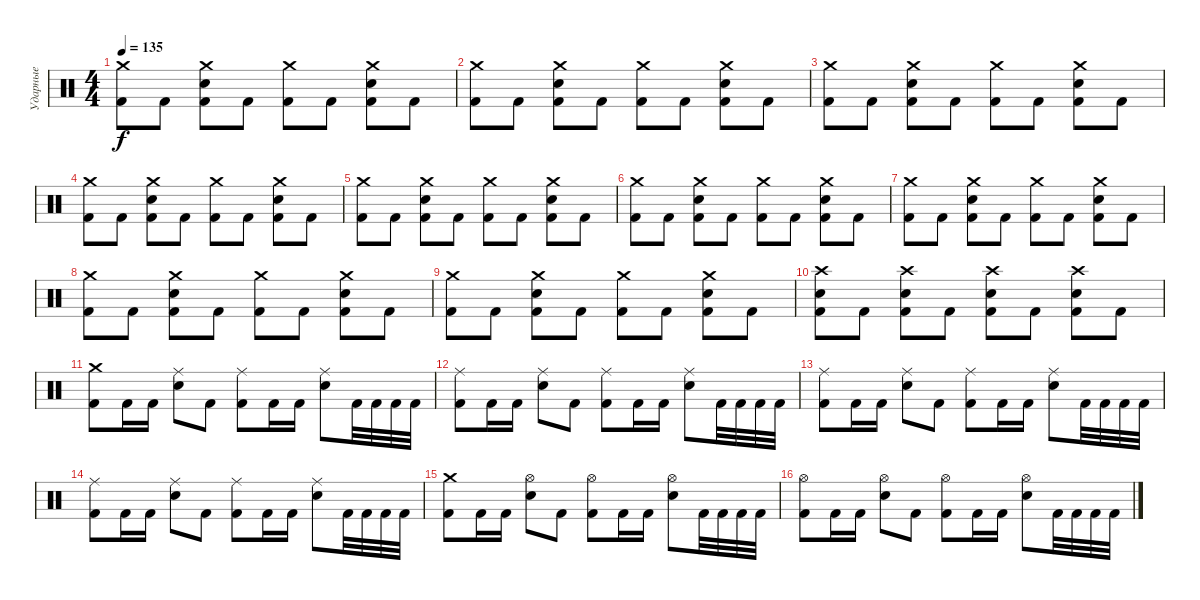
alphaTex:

\track ("Ударные" "Ударные") {instrument percussion}
\staff {score}
\articulation defaults
\ts (4 4)
\tempo 135
\clef neutral
\ks c
("Crash medium (hit)" "Kick (hit) 2").8{dy f} "Kick (hit) 2".8 ("Crash medium (hit)" "Electric Snare (hit)" "Kick (hit) 2").8 "Kick (hit) 2".8 ("Crash medium (hit)" "Kick (hit) 2").8 "Kick (hit) 2".8 ("Crash medium (hit)" "Electric Snare (hit)" "Kick (hit) 2").8 "Kick (hit) 2".8 |
("Crash medium (hit)" "Kick (hit) 2").8 "Kick (hit) 2".8 ("Crash medium (hit)" "Electric Snare (hit)" "Kick (hit) 2").8 "Kick (hit) 2".8 ("Crash medium (hit)" "Kick (hit) 2").8 "Kick (hit) 2".8 ("Crash medium (hit)" "Electric Snare (hit)" "Kick (hit) 2").8 "Kick (hit) 2".8 |
("Crash medium (hit)" "Kick (hit) 2").8 "Kick (hit) 2".8 ("Crash medium (hit)" "Electric Snare (hit)" "Kick (hit) 2").8 "Kick (hit) 2".8 ("Crash medium (hit)" "Kick (hit) 2").8 "Kick (hit) 2".8 ("Crash medium (hit)" "Electric Snare (hit)" "Kick (hit) 2").8 "Kick (hit) 2".8 |
("Crash medium (hit)" "Kick (hit) 2").8 "Kick (hit) 2".8 ("Crash medium (hit)" "Electric Snare (hit)" "Kick (hit) 2").8 "Kick (hit) 2".8 ("Crash medium (hit)" "Kick (hit) 2").8 "Kick (hit) 2".8 ("Crash medium (hit)" "Electric Snare (hit)" "Kick (hit) 2").8 "Kick (hit) 2".8 |
("Crash medium (hit)" "Kick (hit) 2").8 "Kick (hit) 2".8 ("Crash medium (hit)" "Electric Snare (hit)" "Kick (hit) 2").8 "Kick (hit) 2".8 ("Crash medium (hit)" "Kick (hit) 2").8 "Kick (hit) 2".8 ("Crash medium (hit)" "Electric Snare (hit)" "Kick (hit) 2").8 "Kick (hit) 2".8 |
("Crash medium (hit)" "Kick (hit) 2").8 "Kick (hit) 2".8 ("Crash medium (hit)" "Electric Snare (hit)" "Kick (hit) 2").8 "Kick (hit) 2".8 ("Crash medium (hit)" "Kick (hit) 2").8 "Kick (hit) 2".8 ("Crash medium (hit)" "Electric Snare (hit)" "Kick (hit) 2").8 "Kick (hit) 2".8 |
("Crash medium (hit)" "Kick (hit) 2").8 "Kick (hit) 2".8 ("Crash medium (hit)" "Electric Snare (hit)" "Kick (hit) 2").8 "Kick (hit) 2".8 ("Crash medium (hit)" "Kick (hit) 2").8 "Kick (hit) 2".8 ("Crash medium (hit)" "Electric Snare (hit)" "Kick (hit) 2").8 "Kick (hit) 2".8 |
("Crash medium (hit)" "Kick (hit) 2").8 "Kick (hit) 2".8 ("Crash medium (hit)" "Electric Snare (hit)" "Kick (hit) 2").8 "Kick (hit) 2".8 ("Crash medium (hit)" "Kick (hit) 2").8 "Kick (hit) 2".8 ("Crash medium (hit)" "Electric Snare (hit)" "Kick (hit) 2").8 "Kick (hit) 2".8 |
("Crash medium (hit)" "Kick (hit) 2").8 "Kick (hit) 2".8 ("Crash medium (hit)" "Electric Snare (hit)" "Kick (hit) 2").8 "Kick (hit) 2".8 ("Crash medium (hit)" "Kick (hit) 2").8 "Kick (hit) 2".8 ("Crash medium (hit)" "Electric Snare (hit)" "Kick (hit) 2").8 "Kick (hit) 2".8 |
("Crash high (hit)" "Electric Snare (hit)" "Kick (hit) 2").8 "Kick (hit) 2".8 ("Crash high (hit)" "Electric Snare (hit)" "Kick (hit) 2").8 "Kick (hit) 2".8 ("Crash high (hit)" "Electric Snare (hit)" "Kick (hit) 2").8 "Kick (hit) 2".8 ("Crash high (hit)" "Electric Snare (hit)" "Kick (hit) 2").8 "Kick (hit) 2".8 |
("Crash medium (hit)" "Kick (hit) 2").8 "Kick (hit) 2".16 "Kick (hit) 2".16 ("Ride (middle)" "Electric Snare (hit)").8 "Kick (hit) 2".8 ("Ride (middle)" "Kick (hit) 2").8 "Kick (hit) 2".16 "Kick (hit) 2".16 ("Ride (middle)" "Electric Snare (hit)").8 "Kick (hit) 2".32 "Kick (hit) 2".32 "Kick (hit) 2".32 "Kick (hit) 2".32 |
("Ride (middle)" "Kick (hit) 2").8 "Kick (hit) 2".16 "Kick (hit) 2".16 ("Ride (middle)" "Electric Snare (hit)").8 "Kick (hit) 2".8 ("Ride (middle)" "Kick (hit) 2").8 "Kick (hit) 2".16 "Kick (hit) 2".16 ("Ride (middle)" "Electric Snare (hit)").8 "Kick (hit) 2".32 "Kick (hit) 2".32 "Kick (hit) 2".32 "Kick (hit) 2".32 |
("Ride (middle)" "Kick (hit) 2").8 "Kick (hit) 2".16 "Kick (hit) 2".16 ("Ride (middle)" "Electric Snare (hit)").8 "Kick (hit) 2".8 ("Ride (middle)" "Kick (hit) 2").8 "Kick (hit) 2".16 "Kick (hit) 2".16 ("Ride (middle)" "Electric Snare (hit)").8 "Kick (hit) 2".32 "Kick (hit) 2".32 "Kick (hit) 2".32 "Kick (hit) 2".32 |
("Ride (middle)" "Kick (hit) 2").8 "Kick (hit) 2".16 "Kick (hit) 2".16 ("Ride (middle)" "Electric Snare (hit)").8 "Kick (hit) 2".8 ("Ride (middle)" "Kick (hit) 2").8 "Kick (hit) 2".16 "Kick (hit) 2".16 ("Ride (middle)" "Electric Snare (hit)").8 "Kick (hit) 2".32 "Kick (hit) 2".32 "Kick (hit) 2".32 "Kick (hit) 2".32 |
("Crash medium (hit)" "Kick (hit) 2").8 "Kick (hit) 2".16 "Kick (hit) 2".16 ("Hi-Hat (open)" "Electric Snare (hit)").8 "Kick (hit) 2".8 ("Hi-Hat (open)" "Kick (hit) 2").8 "Kick (hit) 2".16 "Kick (hit) 2".16 ("Hi-Hat (open)" "Electric Snare (hit)").8 "Kick (hit) 2".32 "Kick (hit) 2".32 "Kick (hit) 2".32 "Kick (hit) 2".32 |
("Hi-Hat (open)" "Kick (hit) 2").8 "Kick (hit) 2".16 "Kick (hit) 2".16 ("Hi-Hat (open)" "Electric Snare (hit)").8 "Kick (hit) 2".8 ("Hi-Hat (open)" "Kick (hit) 2").8 "Kick (hit) 2".16 "Kick (hit) 2".16 ("Hi-Hat (open)" "Electric Snare (hit)").8 "Kick (hit) 2".32 "Kick (hit) 2".32 "Kick (hit) 2".32 "Kick (hit) 2".32
